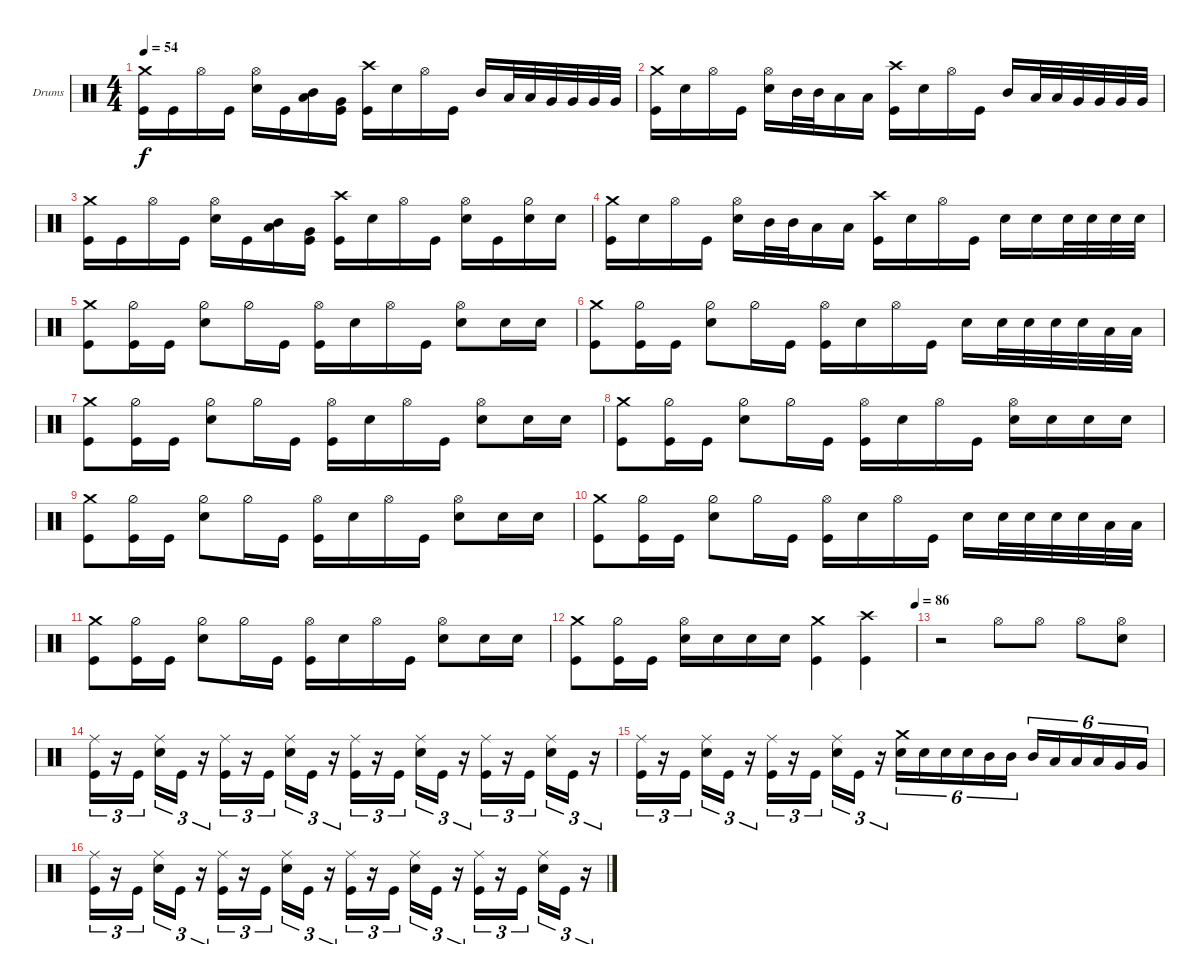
\bracketExtendMode groupsimilarinstruments
\firstSystemTrackNameOrientation horizontal
\otherSystemsTrackNameOrientation horizontal
\track ("Drumkit" "Drums") {instrument percussion}
\staff {score}
\articulation defaults
\ts (4 4)
\tempo 54
\clef neutral
\ks c
("Kick (hit)" "Crash medium (hit)").16{dy f} "Kick (hit)".16 "Hi-Hat (open)".16 "Kick (hit)".16 ("Snare (hit) 2" "Hi-Hat (open)").16 "Kick (hit)".16 ("Low Tom (hit)" "Mid Tom (hit)").16 ("Kick (hit)" "Very Low Tom (hit)").16 ("Kick (hit)" "Crash high (hit)").16 "Snare (hit) 2".16 "Hi-Hat (open)".16 "Kick (hit)".16 "Mid Tom (hit)".16 "Low Tom (hit)".32 "Low Tom (hit)".32 "Very Low Tom (hit)".32 "Very Low Tom (hit)".32 "Very Low Tom (hit)".32 "Very Low Tom (hit)".32 |
("Kick (hit)" "Crash medium (hit)").16 "Snare (hit) 2".16 "Hi-Hat (open)".16 "Kick (hit)".16 ("Snare (hit) 2" "Hi-Hat (open)").16 "Mid Tom (hit)".32 "Mid Tom (hit)".32 "Low Tom (hit)".16 "Low Tom (hit)".16 ("Kick (hit)" "Crash high (hit)").16 "Snare (hit) 2".16 "Hi-Hat (open)".16 "Kick (hit)".16 "Mid Tom (hit)".16 "Low Tom (hit)".32 "Low Tom (hit)".32 "Very Low Tom (hit)".32 "Very Low Tom (hit)".32 "Very Low Tom (hit)".32 "Very Low Tom (hit)".32 |
("Kick (hit)" "Crash medium (hit)").16 "Kick (hit)".16 "Hi-Hat (open)".16 "Kick (hit)".16 ("Snare (hit) 2" "Hi-Hat (open)").16 "Kick (hit)".16 ("Low Tom (hit)" "Mid Tom (hit)").16 ("Kick (hit)" "Very Low Tom (hit)").16 ("Kick (hit)" "Crash high (hit)").16 "Snare (hit) 2".16 "Hi-Hat (open)".16 "Kick (hit)".16 ("Snare (hit) 2" "Hi-Hat (open)").16 "Kick (hit)".16 ("Snare (hit) 2" "Hi-Hat (half)").16 "Snare (hit) 2".16 |
("Kick (hit)" "Crash medium (hit)").16 "Snare (hit) 2".16 "Hi-Hat (open)".16 "Kick (hit)".16 ("Snare (hit) 2" "Hi-Hat (open)").16 "Mid Tom (hit)".32 "Mid Tom (hit)".32 "Low Tom (hit)".16 "Low Tom (hit)".16 ("Kick (hit)" "Crash high (hit)").16 "Snare (hit) 2".16 "Hi-Hat (open)".16 "Kick (hit)".16 "Snare (hit) 2".16 "Snare (hit) 2".16 "Snare (hit) 2".32 "Snare (hit) 2".32 "Snare (hit) 2".32 "Snare (hit) 2".32 |
("Crash medium (hit)" "Kick (hit)").8 ("Kick (hit)" "Hi-Hat (half)").16 "Kick (hit)".16 ("Snare (hit) 2" "Hi-Hat (half)").8 "Hi-Hat (half)".16 "Kick (hit)".16 ("Kick (hit)" "Hi-Hat (open)").16 "Snare (hit) 2".16 "Hi-Hat (open)".16 "Kick (hit)".16 ("Snare (hit) 2" "Hi-Hat (open)").8 "Snare (hit) 2".16 "Snare (hit) 2".16 |
("Crash medium (hit)" "Kick (hit)").8 ("Kick (hit)" "Hi-Hat (half)").16 "Kick (hit)".16 ("Snare (hit) 2" "Hi-Hat (half)").8 "Hi-Hat (half)".16 "Kick (hit)".16 ("Kick (hit)" "Hi-Hat (open)").16 "Snare (hit) 2".16 "Hi-Hat (open)".16 "Kick (hit)".16 "Snare (hit) 2".16 "Snare (hit) 2".32 "Snare (hit) 2".32 "Snare (hit) 2".32 "Snare (hit) 2".32 "Low Tom (hit)".32 "Low Tom (hit)".32 |
("Crash medium (hit)" "Kick (hit)").8 ("Kick (hit)" "Hi-Hat (half)").16 "Kick (hit)".16 ("Snare (hit) 2" "Hi-Hat (half)").8 "Hi-Hat (half)".16 "Kick (hit)".16 ("Kick (hit)" "Hi-Hat (open)").16 "Snare (hit) 2".16 "Hi-Hat (open)".16 "Kick (hit)".16 ("Snare (hit) 2" "Hi-Hat (open)").8 "Snare (hit) 2".16 "Snare (hit) 2".16 |
("Crash medium (hit)" "Kick (hit)").8 ("Kick (hit)" "Hi-Hat (half)").16 "Kick (hit)".16 ("Snare (hit) 2" "Hi-Hat (half)").8 "Hi-Hat (half)".16 "Kick (hit)".16 ("Kick (hit)" "Hi-Hat (open)").16 "Snare (hit) 2".16 "Hi-Hat (open)".16 "Kick (hit)".16 ("Snare (hit) 2" "Hi-Hat (open)").16 "Snare (hit) 2".16 "Snare (hit) 2".16 "Snare (hit) 2".16 |
("Crash medium (hit)" "Kick (hit)").8 ("Kick (hit)" "Hi-Hat (half)").16 "Kick (hit)".16 ("Snare (hit) 2" "Hi-Hat (half)").8 "Hi-Hat (half)".16 "Kick (hit)".16 ("Kick (hit)" "Hi-Hat (open)").16 "Snare (hit) 2".16 "Hi-Hat (open)".16 "Kick (hit)".16 ("Snare (hit) 2" "Hi-Hat (open)").8 "Snare (hit) 2".16 "Snare (hit) 2".16 |
("Crash medium (hit)" "Kick (hit)").8 ("Kick (hit)" "Hi-Hat (half)").16 "Kick (hit)".16 ("Snare (hit) 2" "Hi-Hat (half)").8 "Hi-Hat (half)".16 "Kick (hit)".16 ("Kick (hit)" "Hi-Hat (open)").16 "Snare (hit) 2".16 "Hi-Hat (open)".16 "Kick (hit)".16 "Snare (hit) 2".16 "Snare (hit) 2".32 "Snare (hit) 2".32 "Snare (hit) 2".32 "Snare (hit) 2".32 "Low Tom (hit)".32 "Low Tom (hit)".32 |
("Crash medium (hit)" "Kick (hit)").8 ("Kick (hit)" "Hi-Hat (half)").16 "Kick (hit)".16 ("Snare (hit) 2" "Hi-Hat (half)").8 "Hi-Hat (half)".16 "Kick (hit)".16 ("Kick (hit)" "Hi-Hat (open)").16 "Snare (hit) 2".16 "Hi-Hat (open)".16 "Kick (hit)".16 ("Snare (hit) 2" "Hi-Hat (open)").8 "Snare (hit) 2".16 "Snare (hit) 2".16 |
\tempo (86 1)
("Crash medium (hit)" "Kick (hit)").8 ("Kick (hit)" "Hi-Hat (half)").16 "Kick (hit)".16 ("Snare (hit) 2" "Hi-Hat (open)").16 "Snare (hit) 2".16 "Snare (hit) 2".16 "Snare (hit) 2".16 ("Kick (hit)" "Crash medium (hit)").4 ("Kick (hit)" "Crash high (hit)").4 |
r.2 "Hi-Hat (open)".8 "Hi-Hat (open)".8 "Hi-Hat (open)".8 ("Hi-Hat (open)" "Snare (hit) 2").8 |
("Kick (hit)" "Ride (middle)").16{tu (3 2)} r.16{tu (3 2)} "Kick (hit)".16{tu (3 2)} ("Snare (hit) 2" "Ride (middle)").16{tu (3 2)} "Kick (hit)".16{tu (3 2)} r.16{tu (3 2)} ("Kick (hit)" "Ride (middle)").16{tu (3 2)} r.16{tu (3 2)} "Kick (hit)".16{tu (3 2)} ("Snare (hit) 2" "Ride (middle)").16{tu (3 2)} "Kick (hit)".16{tu (3 2)} r.16{tu (3 2)} ("Kick (hit)" "Ride (middle)").16{tu (3 2)} r.16{tu (3 2)} "Kick (hit)".16{tu (3 2)} ("Snare (hit) 2" "Ride (middle)").16{tu (3 2)} "Kick (hit)".16{tu (3 2)} r.16{tu (3 2)} ("Kick (hit)" "Ride (middle)").16{tu (3 2)} r.16{tu (3 2)} "Kick (hit)".16{tu (3 2)} ("Snare (hit) 2" "Ride (middle)").16{tu (3 2)} "Kick (hit)".16{tu (3 2)} r.16{tu (3 2)} |
("Kick (hit)" "Ride (middle)").16{tu (3 2)} r.16{tu (3 2)} "Kick (hit)".16{tu (3 2)} ("Snare (hit) 2" "Ride (middle)").16{tu (3 2)} "Kick (hit)".16{tu (3 2)} r.16{tu (3 2)} ("Kick (hit)" "Ride (middle)").16{tu (3 2)} r.16{tu (3 2)} "Kick (hit)".16{tu (3 2)} ("Snare (hit) 2" "Ride (middle)").16{tu (3 2)} "Kick (hit)".16{tu (3 2)} r.16{tu (3 2)} ("Snare (hit) 2" "Crash medium (hit)").16{tu (6 4)} "Snare (hit) 2".16{tu (6 4)} "Snare (hit) 2".16{tu (6 4)} "Snare (hit) 2".16{tu (6 4)} "Mid Tom (hit)".16{tu (6 4)} "Mid Tom (hit)".16{tu (6 4)} "Mid Tom (hit)".16{tu (6 4)} "Low Tom (hit)".16{tu (6 4)} "Low Tom (hit)".16{tu (6 4)} "Low Tom (hit)".16{tu (6 4)} "Very Low Tom (hit)".16{tu (6 4)} "Very Low Tom (hit)".16{tu (6 4)} |
("Kick (hit)" "Ride (middle)").16{tu (3 2)} r.16{tu (3 2)} "Kick (hit)".16{tu (3 2)} ("Snare (hit) 2" "Ride (middle)").16{tu (3 2)} "Kick (hit)".16{tu (3 2)} r.16{tu (3 2)} ("Kick (hit)" "Ride (middle)").16{tu (3 2)} r.16{tu (3 2)} "Kick (hit)".16{tu (3 2)} ("Snare (hit) 2" "Ride (middle)").16{tu (3 2)} "Kick (hit)".16{tu (3 2)} r.16{tu (3 2)} ("Kick (hit)" "Ride (middle)").16{tu (3 2)} r.16{tu (3 2)} "Kick (hit)".16{tu (3 2)} ("Snare (hit) 2" "Ride (middle)").16{tu (3 2)} "Kick (hit)".16{tu (3 2)} r.16{tu (3 2)} ("Kick (hit)" "Ride (middle)").16{tu (3 2)} r.16{tu (3 2)} "Kick (hit)".16{tu (3 2)} ("Snare (hit) 2" "Ride (middle)").16{tu (3 2)} "Kick (hit)".16{tu (3 2)} r.16{tu (3 2)}
